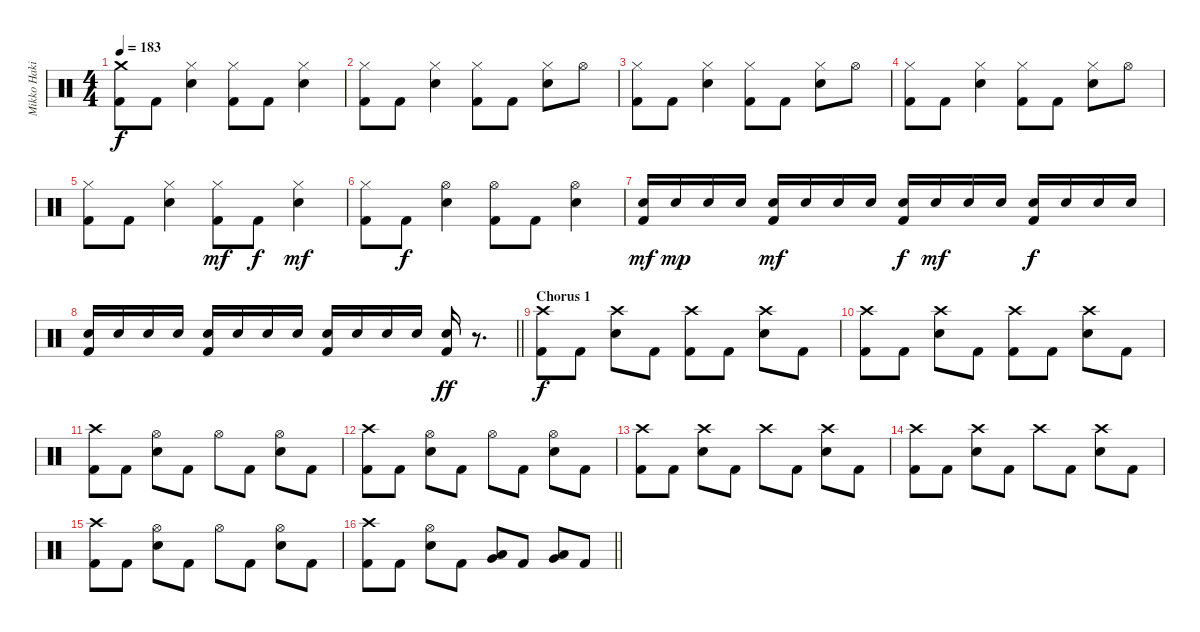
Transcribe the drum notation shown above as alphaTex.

\track ("Mikko Hakila - Drums" "Mikko Haki") {instrument percussion}
\staff {score}
\articulation defaults
\ts (4 4)
\tempo 183
\clef neutral
\ks c
("Crash medium (hit)" "Kick (hit) 2").8{dy f} "Kick (hit) 2".8 ("Hi-Hat (closed)" "Electric Snare (hit)").4 ("Hi-Hat (closed)" "Kick (hit) 2").8 "Kick (hit) 2".8 ("Hi-Hat (closed)" "Electric Snare (hit)").4 |
("Hi-Hat (closed)" "Kick (hit) 2").8 "Kick (hit) 2".8 ("Hi-Hat (closed)" "Electric Snare (hit)").4 ("Hi-Hat (closed)" "Kick (hit) 2").8 "Kick (hit) 2".8 ("Hi-Hat (closed)" "Electric Snare (hit)").8 "Hi-Hat (open)".8 |
("Hi-Hat (closed)" "Kick (hit) 2").8 "Kick (hit) 2".8 ("Hi-Hat (closed)" "Electric Snare (hit)").4 ("Hi-Hat (closed)" "Kick (hit) 2").8 "Kick (hit) 2".8 ("Hi-Hat (closed)" "Electric Snare (hit)").8 "Hi-Hat (open)".8 |
("Hi-Hat (closed)" "Kick (hit) 2").8 "Kick (hit) 2".8 ("Hi-Hat (closed)" "Electric Snare (hit)").4 ("Hi-Hat (closed)" "Kick (hit) 2").8 "Kick (hit) 2".8 ("Hi-Hat (closed)" "Electric Snare (hit)").8 "Hi-Hat (open)".8 |
("Hi-Hat (closed)" "Kick (hit) 2").8 "Kick (hit) 2".8 ("Hi-Hat (closed)" "Electric Snare (hit)").4 ("Hi-Hat (closed)" "Kick (hit) 2").8{dy mf} "Kick (hit) 2".8{dy f} ("Hi-Hat (closed)" "Electric Snare (hit)").4{dy mf} |
("Hi-Hat (closed)" "Kick (hit) 2").8 "Kick (hit) 2".8{dy f} ("Hi-Hat (open)" "Electric Snare (hit)").4 ("Hi-Hat (open)" "Kick (hit) 2").8 "Kick (hit) 2".8 ("Hi-Hat (open)" "Electric Snare (hit)").4 |
("Electric Snare (hit)" "Kick (hit) 2").16{dy mf} "Electric Snare (hit)".16{dy mp} "Electric Snare (hit)".16 "Electric Snare (hit)".16 ("Electric Snare (hit)" "Kick (hit) 2").16{dy mf} "Electric Snare (hit)".16 "Electric Snare (hit)".16 "Electric Snare (hit)".16 ("Electric Snare (hit)" "Kick (hit) 2").16{dy f} "Electric Snare (hit)".16{dy mf} "Electric Snare (hit)".16 "Electric Snare (hit)".16 ("Electric Snare (hit)" "Kick (hit) 2").16{dy f} "Electric Snare (hit)".16 "Electric Snare (hit)".16 "Electric Snare (hit)".16 |
\barLineRight lightlight
("Electric Snare (hit)" "Kick (hit) 2").16 "Electric Snare (hit)".16 "Electric Snare (hit)".16 "Electric Snare (hit)".16 ("Electric Snare (hit)" "Kick (hit) 2").16 "Electric Snare (hit)".16 "Electric Snare (hit)".16 "Electric Snare (hit)".16 ("Electric Snare (hit)" "Kick (hit) 2").16 "Electric Snare (hit)".16 "Electric Snare (hit)".16 "Electric Snare (hit)".16 ("Electric Snare (hit)" "Kick (hit) 2").16{dy ff} r.8{d} |
\section ("" "Chorus 1")
("Crash high (hit)" "Kick (hit) 2").8{dy f} "Kick (hit) 2".8 ("Crash high (hit)" "Electric Snare (hit)").8 "Kick (hit) 2".8 ("Crash high (hit)" "Kick (hit) 2").8 "Kick (hit) 2".8 ("Crash high (hit)" "Electric Snare (hit)").8 "Kick (hit) 2".8 |
("Crash high (hit)" "Kick (hit) 2").8 "Kick (hit) 2".8 ("Crash high (hit)" "Electric Snare (hit)").8 "Kick (hit) 2".8 ("Crash high (hit)" "Kick (hit) 2").8 "Kick (hit) 2".8 ("Crash high (hit)" "Electric Snare (hit)").8 "Kick (hit) 2".8 |
("Crash high (hit)" "Kick (hit) 2").8 "Kick (hit) 2".8 ("Hi-Hat (open)" "Electric Snare (hit)").8 "Kick (hit) 2".8 "Hi-Hat (open)".8 "Kick (hit) 2".8 ("Hi-Hat (open)" "Electric Snare (hit)").8 "Kick (hit) 2".8 |
("Crash high (hit)" "Kick (hit) 2").8 "Kick (hit) 2".8 ("Hi-Hat (open)" "Electric Snare (hit)").8 "Kick (hit) 2".8 "Hi-Hat (open)".8 "Kick (hit) 2".8 ("Hi-Hat (open)" "Electric Snare (hit)").8 "Kick (hit) 2".8 |
("Crash high (hit)" "Kick (hit) 2").8 "Kick (hit) 2".8 ("Crash high (hit)" "Electric Snare (hit)").8 "Kick (hit) 2".8 "Crash high (hit)".8 "Kick (hit) 2".8 ("Crash high (hit)" "Electric Snare (hit)").8 "Kick (hit) 2".8 |
("Crash high (hit)" "Kick (hit) 2").8 "Kick (hit) 2".8 ("Crash high (hit)" "Electric Snare (hit)").8 "Kick (hit) 2".8 "Crash high (hit)".8 "Kick (hit) 2".8 ("Crash high (hit)" "Electric Snare (hit)").8 "Kick (hit) 2".8 |
("Crash high (hit)" "Kick (hit) 2").8 "Kick (hit) 2".8 ("Hi-Hat (open)" "Electric Snare (hit)").8 "Kick (hit) 2".8 "Hi-Hat (open)".8 "Kick (hit) 2".8 ("Hi-Hat (open)" "Electric Snare (hit)").8 "Kick (hit) 2".8 |
\barLineRight lightlight
("Crash high (hit)" "Kick (hit) 2").8 "Kick (hit) 2".8 ("Hi-Hat (open)" "Electric Snare (hit)").8 "Kick (hit) 2".8 ("Low Tom (hit)" "Very Low Tom (hit)").8 "Kick (hit) 2".8 ("Low Tom (hit)" "Very Low Tom (hit)").8 "Kick (hit) 2".8
